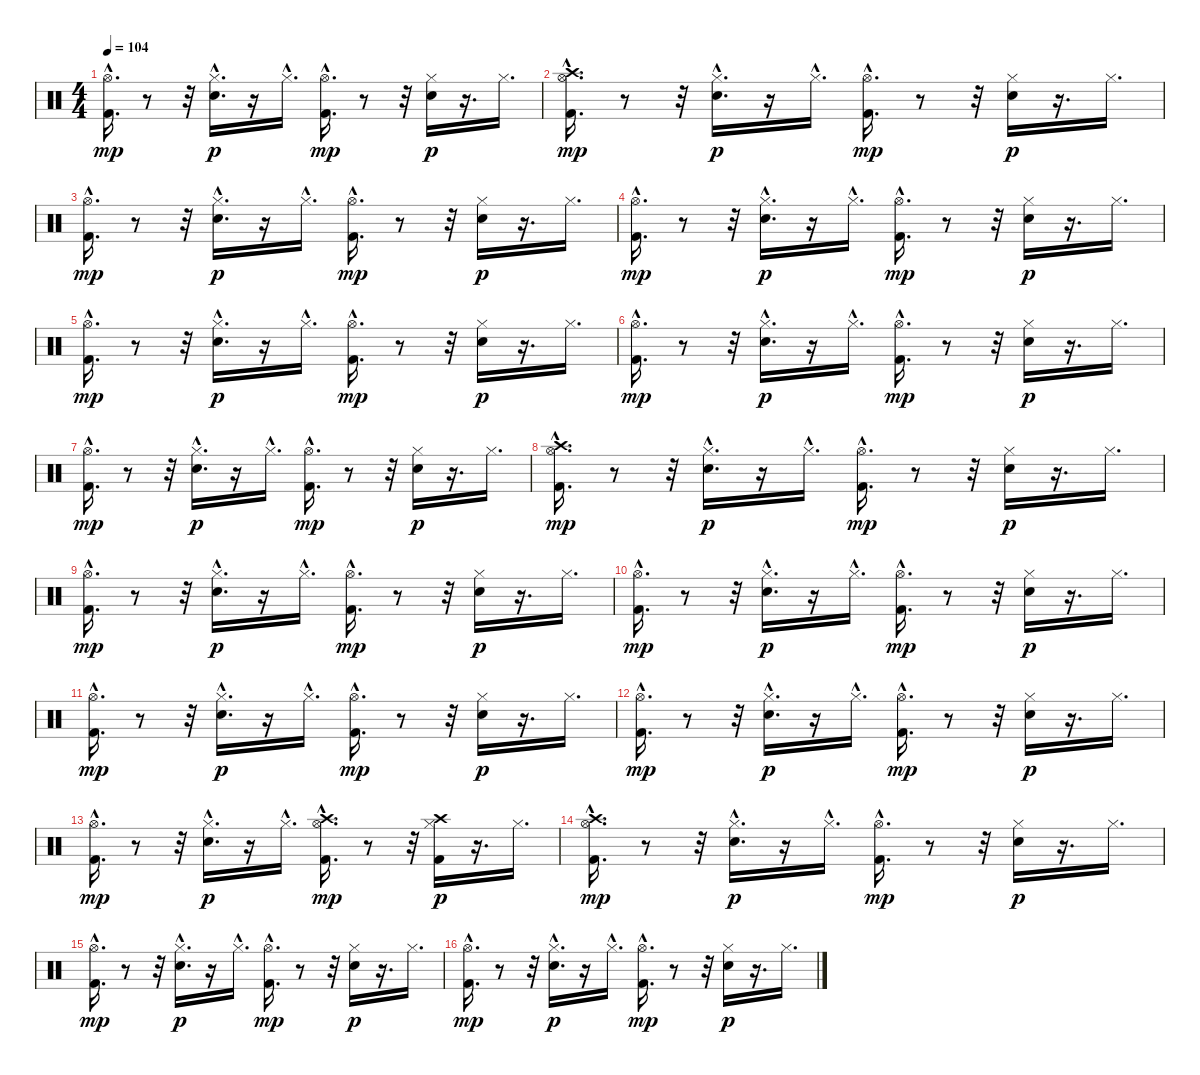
\track "" {instrument percussion}
\staff {score}
\articulation defaults
\ts (4 4)
\tempo 104
\clef neutral
\ks c
("Hi-Hat (open)"{hac} "Kick (hit) 2"{hac}).16{d dy mp} r.8 r.32 ("Hi-Hat (closed)"{hac} "Snare (hit) 2"{hac}).16{d dy p} r.16 "Hi-Hat (closed)"{hac}.16{d} ("Hi-Hat (open)"{hac} "Kick (hit) 2"{hac}).16{d dy mp} r.8 r.32 ("Hi-Hat (closed)" "Snare (hit) 2").16{dy p} r.16{d} "Hi-Hat (closed)".16{d} |
("Crash high (hit)"{hac} "Hi-Hat (open)"{hac} "Kick (hit) 2"{hac}).16{d dy mp} r.8 r.32 ("Hi-Hat (closed)"{hac} "Snare (hit) 2"{hac}).16{d dy p} r.16 "Hi-Hat (closed)"{hac}.16{d} ("Hi-Hat (open)"{hac} "Kick (hit) 2"{hac}).16{d dy mp} r.8 r.32 ("Hi-Hat (closed)" "Snare (hit) 2").16{dy p} r.16{d} "Hi-Hat (closed)".16{d} |
("Hi-Hat (open)"{hac} "Kick (hit) 2"{hac}).16{d dy mp} r.8 r.32 ("Hi-Hat (closed)"{hac} "Snare (hit) 2"{hac}).16{d dy p} r.16 "Hi-Hat (closed)"{hac}.16{d} ("Hi-Hat (open)"{hac} "Kick (hit) 2"{hac}).16{d dy mp} r.8 r.32 ("Hi-Hat (closed)" "Snare (hit) 2").16{dy p} r.16{d} "Hi-Hat (closed)".16{d} |
("Hi-Hat (open)"{hac} "Kick (hit) 2"{hac}).16{d dy mp} r.8 r.32 ("Hi-Hat (closed)"{hac} "Snare (hit) 2"{hac}).16{d dy p} r.16 "Hi-Hat (closed)"{hac}.16{d} ("Hi-Hat (open)"{hac} "Kick (hit) 2"{hac}).16{d dy mp} r.8 r.32 ("Hi-Hat (closed)" "Snare (hit) 2").16{dy p} r.16{d} "Hi-Hat (closed)".16{d} |
("Hi-Hat (open)"{hac} "Kick (hit) 2"{hac}).16{d dy mp} r.8 r.32 ("Hi-Hat (closed)"{hac} "Snare (hit) 2"{hac}).16{d dy p} r.16 "Hi-Hat (closed)"{hac}.16{d} ("Hi-Hat (open)"{hac} "Kick (hit) 2"{hac}).16{d dy mp} r.8 r.32 ("Hi-Hat (closed)" "Snare (hit) 2").16{dy p} r.16{d} "Hi-Hat (closed)".16{d} |
("Hi-Hat (open)"{hac} "Kick (hit) 2"{hac}).16{d dy mp} r.8 r.32 ("Hi-Hat (closed)"{hac} "Snare (hit) 2"{hac}).16{d dy p} r.16 "Hi-Hat (closed)"{hac}.16{d} ("Hi-Hat (open)"{hac} "Kick (hit) 2"{hac}).16{d dy mp} r.8 r.32 ("Hi-Hat (closed)" "Snare (hit) 2").16{dy p} r.16{d} "Hi-Hat (closed)".16{d} |
("Hi-Hat (open)"{hac} "Kick (hit) 2"{hac}).16{d dy mp} r.8 r.32 ("Hi-Hat (closed)"{hac} "Snare (hit) 2"{hac}).16{d dy p} r.16 "Hi-Hat (closed)"{hac}.16{d} ("Hi-Hat (open)"{hac} "Kick (hit) 2"{hac}).16{d dy mp} r.8 r.32 ("Hi-Hat (closed)" "Snare (hit) 2").16{dy p} r.16{d} "Hi-Hat (closed)".16{d} |
("Crash high (hit)"{hac} "Hi-Hat (open)"{hac} "Kick (hit) 2"{hac}).16{d dy mp} r.8 r.32 ("Hi-Hat (closed)"{hac} "Snare (hit) 2"{hac}).16{d dy p} r.16 "Hi-Hat (closed)"{hac}.16{d} ("Hi-Hat (open)"{hac} "Kick (hit) 2"{hac}).16{d dy mp} r.8 r.32 ("Hi-Hat (closed)" "Snare (hit) 2").16{dy p} r.16{d} "Hi-Hat (closed)".16{d} |
("Hi-Hat (open)"{hac} "Kick (hit) 2"{hac}).16{d dy mp} r.8 r.32 ("Hi-Hat (closed)"{hac} "Snare (hit) 2"{hac}).16{d dy p} r.16 "Hi-Hat (closed)"{hac}.16{d} ("Hi-Hat (open)"{hac} "Kick (hit) 2"{hac}).16{d dy mp} r.8 r.32 ("Hi-Hat (closed)" "Snare (hit) 2").16{dy p} r.16{d} "Hi-Hat (closed)".16{d} |
("Hi-Hat (open)"{hac} "Kick (hit) 2"{hac}).16{d dy mp} r.8 r.32 ("Hi-Hat (closed)"{hac} "Snare (hit) 2"{hac}).16{d dy p} r.16 "Hi-Hat (closed)"{hac}.16{d} ("Hi-Hat (open)"{hac} "Kick (hit) 2"{hac}).16{d dy mp} r.8 r.32 ("Hi-Hat (closed)" "Snare (hit) 2").16{dy p} r.16{d} "Hi-Hat (closed)".16{d} |
("Hi-Hat (open)"{hac} "Kick (hit) 2"{hac}).16{d dy mp} r.8 r.32 ("Hi-Hat (closed)"{hac} "Snare (hit) 2"{hac}).16{d dy p} r.16 "Hi-Hat (closed)"{hac}.16{d} ("Hi-Hat (open)"{hac} "Kick (hit) 2"{hac}).16{d dy mp} r.8 r.32 ("Hi-Hat (closed)" "Snare (hit) 2").16{dy p} r.16{d} "Hi-Hat (closed)".16{d} |
("Hi-Hat (open)"{hac} "Kick (hit) 2"{hac}).16{d dy mp} r.8 r.32 ("Hi-Hat (closed)"{hac} "Snare (hit) 2"{hac}).16{d dy p} r.16 "Hi-Hat (closed)"{hac}.16{d} ("Hi-Hat (open)"{hac} "Kick (hit) 2"{hac}).16{d dy mp} r.8 r.32 ("Hi-Hat (closed)" "Snare (hit) 2").16{dy p} r.16{d} "Hi-Hat (closed)".16{d} |
("Hi-Hat (open)"{hac} "Kick (hit) 2"{hac}).16{d dy mp} r.8 r.32 ("Snare (hit) 2"{hac} "Hi-Hat (closed)"{hac}).16{d dy p} r.16 "Hi-Hat (closed)"{hac}.16{d} ("Crash high (hit)"{hac} "Hi-Hat (open)"{hac} "Kick (hit) 2"{hac}).16{d dy mp} r.8 r.32 ("Crash high (hit)" "Kick (hit) 2" "Hi-Hat (closed)").16{dy p} r.16{d} "Hi-Hat (closed)".16{d} |
("Crash high (hit)"{hac} "Hi-Hat (open)"{hac} "Kick (hit) 2"{hac}).16{d dy mp} r.8 r.32 ("Hi-Hat (closed)"{hac} "Snare (hit) 2"{hac}).16{d dy p} r.16 "Hi-Hat (closed)"{hac}.16{d} ("Hi-Hat (open)"{hac} "Kick (hit) 2"{hac}).16{d dy mp} r.8 r.32 ("Hi-Hat (closed)" "Snare (hit) 2").16{dy p} r.16{d} "Hi-Hat (closed)".16{d} |
("Hi-Hat (open)"{hac} "Kick (hit) 2"{hac}).16{d dy mp} r.8 r.32 ("Hi-Hat (closed)"{hac} "Snare (hit) 2"{hac}).16{d dy p} r.16 "Hi-Hat (closed)"{hac}.16{d} ("Hi-Hat (open)"{hac} "Kick (hit) 2"{hac}).16{d dy mp} r.8 r.32 ("Hi-Hat (closed)" "Snare (hit) 2").16{dy p} r.16{d} "Hi-Hat (closed)".16{d} |
("Hi-Hat (open)"{hac} "Kick (hit) 2"{hac}).16{d dy mp} r.8 r.32 ("Hi-Hat (closed)"{hac} "Snare (hit) 2"{hac}).16{d dy p} r.16 "Hi-Hat (closed)"{hac}.16{d} ("Hi-Hat (open)"{hac} "Kick (hit) 2"{hac}).16{d dy mp} r.8 r.32 ("Hi-Hat (closed)" "Snare (hit) 2").16{dy p} r.16{d} "Hi-Hat (closed)".16{d}
